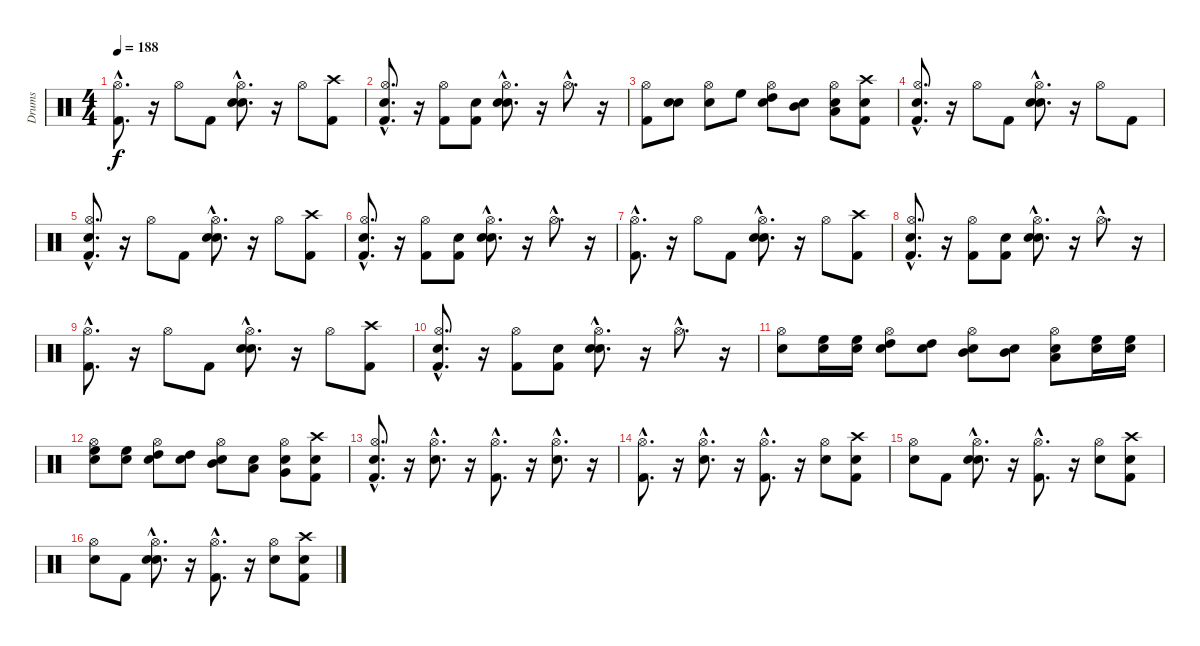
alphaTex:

\track ("Drums" "Drums") {instrument percussion}
\staff {score}
\articulation defaults
\ts (4 4)
\tempo 188
\clef neutral
\ks c
("Kick (hit) 2"{hac} "Hi-Hat (open)"{hac}).8{d dy f} r.16 "Hi-Hat (open)".8 "Kick (hit) 2".8 ("Snare (hit)"{hac} "Snare (hit) 2"{hac} "Hi-Hat (open)"{hac}).8{d} r.16 "Hi-Hat (open)".8 ("Kick (hit) 2" "Crash high (hit)").8 |
("Snare (hit)"{hac} "Kick (hit) 2"{hac} "Hi-Hat (open)"{hac}).8{d} r.16 ("Kick (hit) 2" "Hi-Hat (open)").8 ("Snare (hit)" "Kick (hit) 2").8 ("Snare (hit)"{hac} "Snare (hit) 2"{hac} "Hi-Hat (open)"{hac}).8{d} r.16 "Hi-Hat (open)"{hac}.8{d} r.16 |
("Kick (hit) 2" "Hi-Hat (open)").8 ("Snare (hit)" "Snare (hit) 2").8 ("Snare (hit)" "Hi-Hat (open)").8 "High Floor Tom (hit)".8 ("Snare (hit)" "Hi-Hat (open)" "High Tom (hit)").8 ("Snare (hit)" "Mid Tom (hit)").8 ("Snare (hit)" "Low Tom (hit)" "Hi-Hat (open)").8 ("Snare (hit)" "Kick (hit) 2" "Crash high (hit)").8 |
("Snare (hit)"{hac} "Kick (hit) 2"{hac} "Hi-Hat (open)"{hac}).8{d} r.16 "Hi-Hat (open)".8 "Kick (hit) 2".8 ("Snare (hit)"{hac} "Snare (hit) 2"{hac} "Hi-Hat (open)"{hac}).8{d} r.16 "Hi-Hat (open)".8 "Kick (hit) 2".8 |
("Snare (hit)"{hac} "Kick (hit) 2"{hac} "Hi-Hat (open)"{hac}).8{d} r.16 "Hi-Hat (open)".8 "Kick (hit) 2".8 ("Snare (hit)"{hac} "Snare (hit) 2"{hac} "Hi-Hat (open)"{hac}).8{d} r.16 "Hi-Hat (open)".8 ("Kick (hit) 2" "Crash high (hit)").8 |
("Snare (hit)"{hac} "Kick (hit) 2"{hac} "Hi-Hat (open)"{hac}).8{d} r.16 ("Kick (hit) 2" "Hi-Hat (open)").8 ("Snare (hit)" "Kick (hit) 2").8 ("Snare (hit)"{hac} "Snare (hit) 2"{hac} "Hi-Hat (open)"{hac}).8{d} r.16 "Hi-Hat (open)"{hac}.8{d} r.16 |
("Kick (hit) 2"{hac} "Hi-Hat (open)"{hac}).8{d} r.16 "Hi-Hat (open)".8 "Kick (hit) 2".8 ("Snare (hit)"{hac} "Snare (hit) 2"{hac} "Hi-Hat (open)"{hac}).8{d} r.16 "Hi-Hat (open)".8 ("Kick (hit) 2" "Crash high (hit)").8 |
("Snare (hit)"{hac} "Kick (hit) 2"{hac} "Hi-Hat (open)"{hac}).8{d} r.16 ("Kick (hit) 2" "Hi-Hat (open)").8 ("Snare (hit)" "Kick (hit) 2").8 ("Snare (hit)"{hac} "Snare (hit) 2"{hac} "Hi-Hat (open)"{hac}).8{d} r.16 "Hi-Hat (open)"{hac}.8{d} r.16 |
("Kick (hit) 2"{hac} "Hi-Hat (open)"{hac}).8{d} r.16 "Hi-Hat (open)".8 "Kick (hit) 2".8 ("Snare (hit)"{hac} "Snare (hit) 2"{hac} "Hi-Hat (open)"{hac}).8{d} r.16 "Hi-Hat (open)".8 ("Kick (hit) 2" "Crash high (hit)").8 |
("Snare (hit)"{hac} "Kick (hit) 2"{hac} "Hi-Hat (open)"{hac}).8{d} r.16 ("Kick (hit) 2" "Hi-Hat (open)").8 ("Snare (hit)" "Kick (hit) 2").8 ("Snare (hit)"{hac} "Snare (hit) 2"{hac} "Hi-Hat (open)"{hac}).8{d} r.16 "Hi-Hat (open)"{hac}.8{d} r.16 |
("Snare (hit) 2" "Hi-Hat (open)").8 ("Snare (hit)" "High Floor Tom (hit)").16 ("Snare (hit)" "High Floor Tom (hit)").16 ("Snare (hit)" "Hi-Hat (open)" "High Tom (hit)").8 ("Snare (hit)" "High Tom (hit)").8 ("Snare (hit)" "Hi-Hat (open)" "Mid Tom (hit)").8 ("Snare (hit)" "Mid Tom (hit)").8 ("Snare (hit)" "Low Tom (hit)" "Hi-Hat (open)").8 ("Snare (hit)" "High Floor Tom (hit)").16 ("Snare (hit)" "High Floor Tom (hit)").16 |
("Snare (hit)" "Hi-Hat (open)" "High Floor Tom (hit)").8 ("Snare (hit)" "High Floor Tom (hit)").8 ("Snare (hit)" "Hi-Hat (open)" "High Tom (hit)").8 ("Snare (hit)" "High Tom (hit)").8 ("Snare (hit)" "Hi-Hat (open)" "Mid Tom (hit)").8 ("Snare (hit)" "Low Tom (hit)").8 ("Snare (hit)" "Very Low Tom (hit)" "Hi-Hat (open)").8 ("Snare (hit)" "Kick (hit) 2" "Crash high (hit)").8 |
("Snare (hit)"{hac} "Kick (hit) 2"{hac} "Hi-Hat (open)"{hac}).8{d} r.16 ("Snare (hit) 2"{hac} "Hi-Hat (open)"{hac}).8{d} r.16 ("Kick (hit) 2"{hac} "Hi-Hat (open)"{hac}).8{d} r.16 ("Snare (hit) 2"{hac} "Hi-Hat (open)"{hac}).8{d} r.16 |
("Kick (hit) 2"{hac} "Hi-Hat (open)"{hac}).8{d} r.16 ("Snare (hit) 2"{hac} "Hi-Hat (open)"{hac}).8{d} r.16 ("Kick (hit) 2"{hac} "Hi-Hat (open)"{hac}).8{d} r.16 ("Snare (hit) 2" "Hi-Hat (open)").8 ("Snare (hit)" "Kick (hit) 2" "Crash high (hit)").8 |
("Snare (hit)" "Hi-Hat (open)").8 "Kick (hit) 2".8 ("Snare (hit)"{hac} "Snare (hit) 2"{hac} "Hi-Hat (open)"{hac}).8{d} r.16 ("Kick (hit) 2"{hac} "Hi-Hat (open)"{hac}).8{d} r.16 ("Snare (hit) 2" "Hi-Hat (open)").8 ("Snare (hit)" "Kick (hit) 2" "Crash high (hit)").8 |
("Snare (hit)" "Hi-Hat (open)").8 "Kick (hit) 2".8 ("Snare (hit)"{hac} "Snare (hit) 2"{hac} "Hi-Hat (open)"{hac}).8{d} r.16 ("Kick (hit) 2"{hac} "Hi-Hat (open)"{hac}).8{d} r.16 ("Snare (hit) 2" "Hi-Hat (open)").8 ("Snare (hit)" "Kick (hit) 2" "Crash high (hit)").8
